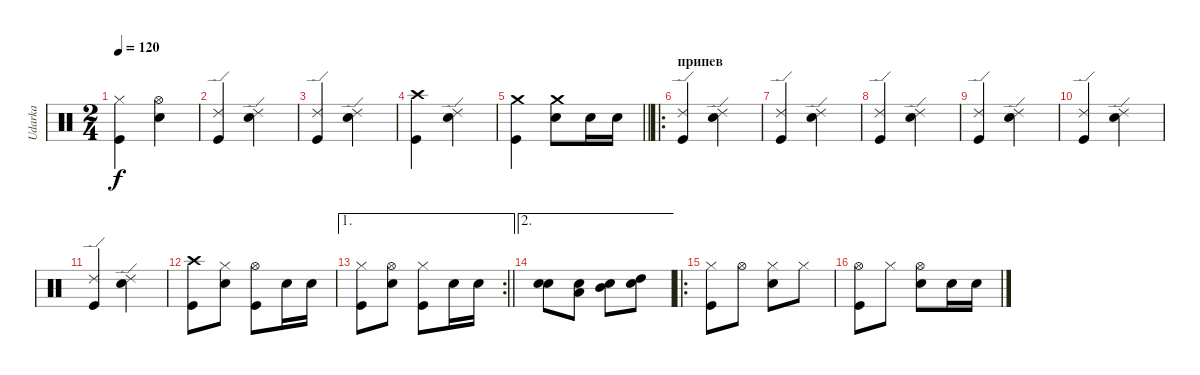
\track ("Udarka" "Udarka") {solo instrument percussion}
\staff {score}
\articulation defaults
\ts (2 4)
\tempo 120
\clef neutral
\ks c
("Kick (hit)" "Hi-Hat (closed)").4{dy f} ("Snare (hit) 2" "Hi-Hat (open)").4 |
("Kick (hit)" "Ride (edge) 2").4 ("Snare (hit) 2" "Ride (edge) 2").4 |
("Kick (hit)" "Ride (edge) 2").4 ("Snare (hit) 2" "Ride (edge) 2").4 |
("Kick (hit)" "Crash high (hit)").4 ("Snare (hit) 2" "Ride (edge) 2").4 |
\barLineRight lightlight
("Kick (hit)" "Crash medium (hit)").4 ("Snare (hit) 2" "Crash medium (hit)").8 "Snare (hit) 2".16 "Snare (hit) 2".16 |
\ro
\section ("" "припев")
("Kick (hit)" "Ride (edge) 2").4 ("Snare (hit) 2" "Ride (edge) 2").4 |
("Kick (hit)" "Ride (edge) 2").4 ("Snare (hit) 2" "Ride (edge) 2").4 |
("Kick (hit)" "Ride (edge) 2").4 ("Snare (hit) 2" "Ride (edge) 2").4 |
("Kick (hit)" "Ride (edge) 2").4 ("Snare (hit) 2" "Ride (edge) 2").4 |
("Kick (hit)" "Ride (edge) 2").4 ("Snare (hit) 2" "Ride (edge) 2").4 |
("Kick (hit)" "Ride (edge) 2").4 ("Snare (hit) 2" "Ride (edge) 2").4 |
("Kick (hit)" "Crash high (hit)").8 ("Snare (hit) 2" "Hi-Hat (closed)").8 ("Kick (hit)" "Hi-Hat (open)").8 "Snare (hit) 2".16 "Snare (hit) 2".16 |
\ae 1
\rc 2
\barLineRight lightlight
("Kick (hit)" "Hi-Hat (closed)").8 ("Snare (hit) 2" "Hi-Hat (open)").8 ("Kick (hit)" "Hi-Hat (closed)").8 "Snare (hit) 2".16 "Snare (hit) 2".16 |
\ae 2
("Snare (hit) 2" "Snare (hit) 2").8 ("Snare (hit) 2" "Low Tom (hit)").8 ("Snare (hit) 2" "Mid Tom (hit)").8 ("Snare (hit) 2" "High Tom (hit)").8 |
\ro
("Kick (hit)" "Hi-Hat (closed)").8 "Hi-Hat (open)".8 ("Snare (hit) 2" "Hi-Hat (closed)").8 "Hi-Hat (closed)".8 |
("Kick (hit)" "Hi-Hat (open)").8 "Hi-Hat (closed)".8 ("Snare (hit) 2" "Hi-Hat (open)").8 "Snare (hit) 2".16 "Snare (hit) 2".16
